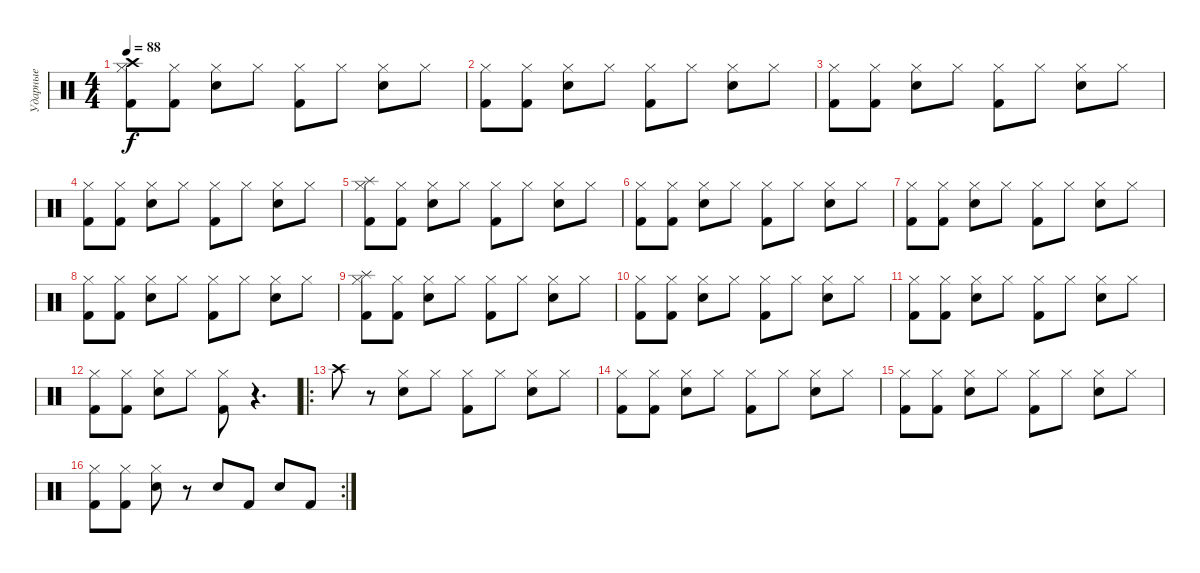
\track ("Ударные" "Ударные") {instrument percussion}
\staff {score}
\articulation defaults
\ts (4 4)
\tempo 88
\clef neutral
\ks c
("Crash high (hit)" "Hi-Hat (closed)" "Kick (hit) 2").8{dy f} ("Hi-Hat (closed)" "Kick (hit) 2").8 ("Hi-Hat (closed)" "Snare (hit) 2").8 "Hi-Hat (closed)".8 ("Hi-Hat (closed)" "Kick (hit) 2").8 "Hi-Hat (closed)".8 ("Hi-Hat (closed)" "Snare (hit) 2").8 "Hi-Hat (closed)".8 |
("Hi-Hat (closed)" "Kick (hit) 2").8 ("Hi-Hat (closed)" "Kick (hit) 2").8 ("Hi-Hat (closed)" "Snare (hit) 2").8 "Hi-Hat (closed)".8 ("Hi-Hat (closed)" "Kick (hit) 2").8 "Hi-Hat (closed)".8 ("Hi-Hat (closed)" "Snare (hit) 2").8 "Hi-Hat (closed)".8 |
("Hi-Hat (closed)" "Kick (hit) 2").8 ("Hi-Hat (closed)" "Kick (hit) 2").8 ("Hi-Hat (closed)" "Snare (hit) 2").8 "Hi-Hat (closed)".8 ("Hi-Hat (closed)" "Kick (hit) 2").8 "Hi-Hat (closed)".8 ("Hi-Hat (closed)" "Snare (hit) 2").8 "Hi-Hat (closed)".8 |
("Hi-Hat (closed)" "Kick (hit) 2").8 ("Hi-Hat (closed)" "Kick (hit) 2").8 ("Hi-Hat (closed)" "Snare (hit) 2").8 "Hi-Hat (closed)".8 ("Hi-Hat (closed)" "Kick (hit) 2").8 "Hi-Hat (closed)".8 ("Hi-Hat (closed)" "Snare (hit) 2").8 "Hi-Hat (closed)".8 |
("Splash (hit)" "Hi-Hat (closed)" "Kick (hit) 2").8 ("Hi-Hat (closed)" "Kick (hit) 2").8 ("Hi-Hat (closed)" "Snare (hit) 2").8 "Hi-Hat (closed)".8 ("Hi-Hat (closed)" "Kick (hit) 2").8 "Hi-Hat (closed)".8 ("Hi-Hat (closed)" "Snare (hit) 2").8 "Hi-Hat (closed)".8 |
("Hi-Hat (closed)" "Kick (hit) 2").8 ("Hi-Hat (closed)" "Kick (hit) 2").8 ("Hi-Hat (closed)" "Snare (hit) 2").8 "Hi-Hat (closed)".8 ("Hi-Hat (closed)" "Kick (hit) 2").8 "Hi-Hat (closed)".8 ("Hi-Hat (closed)" "Snare (hit) 2").8 "Hi-Hat (closed)".8 |
("Hi-Hat (closed)" "Kick (hit) 2").8 ("Hi-Hat (closed)" "Kick (hit) 2").8 ("Hi-Hat (closed)" "Snare (hit) 2").8 "Hi-Hat (closed)".8 ("Hi-Hat (closed)" "Kick (hit) 2").8 "Hi-Hat (closed)".8 ("Hi-Hat (closed)" "Snare (hit) 2").8 "Hi-Hat (closed)".8 |
("Hi-Hat (closed)" "Kick (hit) 2").8 ("Hi-Hat (closed)" "Kick (hit) 2").8 ("Hi-Hat (closed)" "Snare (hit) 2").8 "Hi-Hat (closed)".8 ("Hi-Hat (closed)" "Kick (hit) 2").8 "Hi-Hat (closed)".8 ("Hi-Hat (closed)" "Snare (hit) 2").8 "Hi-Hat (closed)".8 |
("Splash (hit)" "Hi-Hat (closed)" "Kick (hit) 2").8 ("Hi-Hat (closed)" "Kick (hit) 2").8 ("Hi-Hat (closed)" "Snare (hit) 2").8 "Hi-Hat (closed)".8 ("Hi-Hat (closed)" "Kick (hit) 2").8 "Hi-Hat (closed)".8 ("Hi-Hat (closed)" "Snare (hit) 2").8 "Hi-Hat (closed)".8 |
("Hi-Hat (closed)" "Kick (hit) 2").8 ("Hi-Hat (closed)" "Kick (hit) 2").8 ("Hi-Hat (closed)" "Snare (hit) 2").8 "Hi-Hat (closed)".8 ("Hi-Hat (closed)" "Kick (hit) 2").8 "Hi-Hat (closed)".8 ("Hi-Hat (closed)" "Snare (hit) 2").8 "Hi-Hat (closed)".8 |
("Hi-Hat (closed)" "Kick (hit) 2").8 ("Hi-Hat (closed)" "Kick (hit) 2").8 ("Hi-Hat (closed)" "Snare (hit) 2").8 "Hi-Hat (closed)".8 ("Hi-Hat (closed)" "Kick (hit) 2").8 "Hi-Hat (closed)".8 ("Hi-Hat (closed)" "Snare (hit) 2").8 "Hi-Hat (closed)".8 |
("Hi-Hat (closed)" "Kick (hit) 2").8 ("Hi-Hat (closed)" "Kick (hit) 2").8 ("Hi-Hat (closed)" "Snare (hit) 2").8 "Hi-Hat (closed)".8 ("Hi-Hat (closed)" "Kick (hit) 2").8 r.4{d} |
\ro "Crash high (hit)".8
r.8 ("Hi-Hat (closed)" "Snare (hit) 2").8 "Hi-Hat (closed)".8 ("Hi-Hat (closed)" "Kick (hit) 2").8 "Hi-Hat (closed)".8 ("Hi-Hat (closed)" "Snare (hit) 2").8 "Hi-Hat (closed)".8 |
("Hi-Hat (closed)" "Kick (hit) 2").8 ("Hi-Hat (closed)" "Kick (hit) 2").8 ("Hi-Hat (closed)" "Snare (hit) 2").8 "Hi-Hat (closed)".8 ("Hi-Hat (closed)" "Kick (hit) 2").8 "Hi-Hat (closed)".8 ("Hi-Hat (closed)" "Snare (hit) 2").8 "Hi-Hat (closed)".8 |
("Hi-Hat (closed)" "Kick (hit) 2").8 ("Hi-Hat (closed)" "Kick (hit) 2").8 ("Hi-Hat (closed)" "Snare (hit) 2").8 "Hi-Hat (closed)".8 ("Hi-Hat (closed)" "Kick (hit) 2").8 "Hi-Hat (closed)".8 ("Hi-Hat (closed)" "Snare (hit) 2").8 "Hi-Hat (closed)".8 |
\rc 2
("Hi-Hat (closed)" "Kick (hit) 2").8 ("Hi-Hat (closed)" "Kick (hit) 2").8 ("Hi-Hat (closed)" "Snare (hit) 2").8 r.8 "Snare (hit) 2".8 "Kick (hit) 2".8 "Snare (hit) 2".8 "Kick (hit) 2".8
